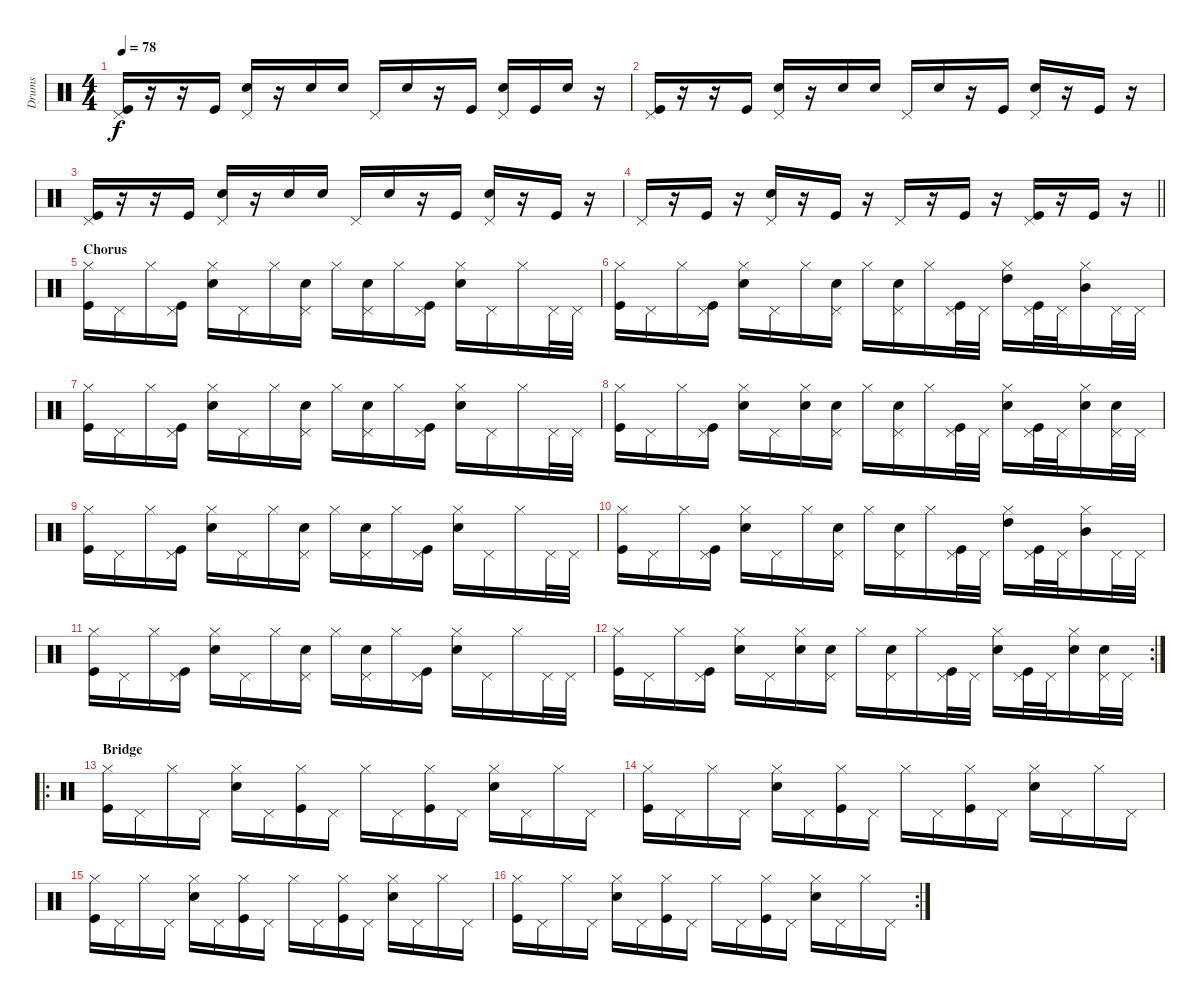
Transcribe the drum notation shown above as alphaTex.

\track ("Drums" "Drums") {instrument percussion}
\staff {score}
\articulation defaults
\ts (4 4)
\tempo 78
\clef neutral
\ks c
("Pedal Hi-Hat (hit)" "Kick (hit)").16{dy f} r.16 r.16 "Kick (hit)".16 ("Pedal Hi-Hat (hit)" "Snare (hit) 2").16 r.16 "Snare (hit) 2".16 "Snare (hit) 2".16 "Pedal Hi-Hat (hit)".16 "Snare (hit) 2".16 r.16 "Kick (hit)".16 ("Pedal Hi-Hat (hit)" "Snare (hit) 2").16 "Kick (hit)".16 "Snare (hit) 2".16 r.16 |
("Pedal Hi-Hat (hit)" "Kick (hit)").16 r.16 r.16 "Kick (hit)".16 ("Pedal Hi-Hat (hit)" "Snare (hit) 2").16 r.16 "Snare (hit) 2".16 "Snare (hit) 2".16 "Pedal Hi-Hat (hit)".16 "Snare (hit) 2".16 r.16 "Kick (hit)".16 ("Pedal Hi-Hat (hit)" "Snare (hit) 2").16 r.16 "Kick (hit)".16 r.16 |
("Pedal Hi-Hat (hit)" "Kick (hit)").16 r.16 r.16 "Kick (hit)".16 ("Pedal Hi-Hat (hit)" "Snare (hit) 2").16 r.16 "Snare (hit) 2".16 "Snare (hit) 2".16 "Pedal Hi-Hat (hit)".16 "Snare (hit) 2".16 r.16 "Kick (hit)".16 ("Pedal Hi-Hat (hit)" "Snare (hit) 2").16 r.16 "Kick (hit)".16 r.16 |
\barLineRight lightlight "Pedal Hi-Hat (hit)".16
r.16 "Kick (hit)".16 r.16 ("Pedal Hi-Hat (hit)" "Snare (hit) 2").16 r.16 "Kick (hit)".16 r.16 "Pedal Hi-Hat (hit)".16 r.16 "Kick (hit)".16 r.16 ("Pedal Hi-Hat (hit)" "Kick (hit)").16 r.16 "Kick (hit)".16 r.16 |
\section ("" "Chorus")
("Hi-Hat (closed)" "Kick (hit)").16 "Pedal Hi-Hat (hit)".16 "Hi-Hat (closed)".16 ("Pedal Hi-Hat (hit)" "Kick (hit)").16 ("Hi-Hat (closed)" "Snare (hit) 2").16 "Pedal Hi-Hat (hit)".16 "Hi-Hat (closed)".16 ("Pedal Hi-Hat (hit)" "Snare (hit) 2").16 "Hi-Hat (closed)".16 ("Pedal Hi-Hat (hit)" "Snare (hit) 2").16 "Hi-Hat (closed)".16 ("Pedal Hi-Hat (hit)" "Kick (hit)").16 ("Hi-Hat (closed)" "Snare (hit) 2").16 "Pedal Hi-Hat (hit)".16 "Hi-Hat (closed)".16 "Pedal Hi-Hat (hit)".32 "Pedal Hi-Hat (hit)".32 |
("Hi-Hat (closed)" "Kick (hit)").16 "Pedal Hi-Hat (hit)".16 "Hi-Hat (closed)".16 ("Pedal Hi-Hat (hit)" "Kick (hit)").16 ("Hi-Hat (closed)" "Snare (hit) 2").16 "Pedal Hi-Hat (hit)".16 "Hi-Hat (closed)".16 ("Pedal Hi-Hat (hit)" "Snare (hit) 2").16 "Hi-Hat (closed)".16 ("Pedal Hi-Hat (hit)" "Snare (hit) 2").16 "Hi-Hat (closed)".16 ("Pedal Hi-Hat (hit)" "Kick (hit)").32 "Pedal Hi-Hat (hit)".32 ("Hi-Hat (closed)" "High Tom (hit)").16 ("Pedal Hi-Hat (hit)" "Kick (hit)").32 "Pedal Hi-Hat (hit)".32 ("Hi-Hat (closed)" "Mid Tom (hit)").16 "Pedal Hi-Hat (hit)".32 "Pedal Hi-Hat (hit)".32 |
("Hi-Hat (closed)" "Kick (hit)").16 "Pedal Hi-Hat (hit)".16 "Hi-Hat (closed)".16 ("Pedal Hi-Hat (hit)" "Kick (hit)").16 ("Hi-Hat (closed)" "Snare (hit) 2").16 "Pedal Hi-Hat (hit)".16 "Hi-Hat (closed)".16 ("Pedal Hi-Hat (hit)" "Snare (hit) 2").16 "Hi-Hat (closed)".16 ("Pedal Hi-Hat (hit)" "Snare (hit) 2").16 "Hi-Hat (closed)".16 ("Pedal Hi-Hat (hit)" "Kick (hit)").16 ("Hi-Hat (closed)" "Snare (hit) 2").16 "Pedal Hi-Hat (hit)".16 "Hi-Hat (closed)".16 "Pedal Hi-Hat (hit)".32 "Pedal Hi-Hat (hit)".32 |
("Hi-Hat (closed)" "Kick (hit)").16 "Pedal Hi-Hat (hit)".16 "Hi-Hat (closed)".16 ("Pedal Hi-Hat (hit)" "Kick (hit)").16 ("Hi-Hat (closed)" "Snare (hit) 2").16 "Pedal Hi-Hat (hit)".16 ("Hi-Hat (closed)" "Snare (hit) 2").16 ("Pedal Hi-Hat (hit)" "Snare (hit) 2").16 "Hi-Hat (closed)".16 ("Pedal Hi-Hat (hit)" "Snare (hit) 2").16 "Hi-Hat (closed)".16 ("Pedal Hi-Hat (hit)" "Kick (hit)").32 "Pedal Hi-Hat (hit)".32 ("Hi-Hat (closed)" "Snare (hit) 2").16 ("Pedal Hi-Hat (hit)" "Kick (hit)").32 "Pedal Hi-Hat (hit)".32 ("Hi-Hat (closed)" "Snare (hit) 2").16 ("Pedal Hi-Hat (hit)" "Snare (hit) 2").32 "Pedal Hi-Hat (hit)".32 |
("Hi-Hat (closed)" "Kick (hit)").16 "Pedal Hi-Hat (hit)".16 "Hi-Hat (closed)".16 ("Pedal Hi-Hat (hit)" "Kick (hit)").16 ("Hi-Hat (closed)" "Snare (hit) 2").16 "Pedal Hi-Hat (hit)".16 "Hi-Hat (closed)".16 ("Pedal Hi-Hat (hit)" "Snare (hit) 2").16 "Hi-Hat (closed)".16 ("Pedal Hi-Hat (hit)" "Snare (hit) 2").16 "Hi-Hat (closed)".16 ("Pedal Hi-Hat (hit)" "Kick (hit)").16 ("Hi-Hat (closed)" "Snare (hit) 2").16 "Pedal Hi-Hat (hit)".16 "Hi-Hat (closed)".16 "Pedal Hi-Hat (hit)".32 "Pedal Hi-Hat (hit)".32 |
("Hi-Hat (closed)" "Kick (hit)").16 "Pedal Hi-Hat (hit)".16 "Hi-Hat (closed)".16 ("Pedal Hi-Hat (hit)" "Kick (hit)").16 ("Hi-Hat (closed)" "Snare (hit) 2").16 "Pedal Hi-Hat (hit)".16 "Hi-Hat (closed)".16 ("Pedal Hi-Hat (hit)" "Snare (hit) 2").16 "Hi-Hat (closed)".16 ("Pedal Hi-Hat (hit)" "Snare (hit) 2").16 "Hi-Hat (closed)".16 ("Pedal Hi-Hat (hit)" "Kick (hit)").32 "Pedal Hi-Hat (hit)".32 ("Hi-Hat (closed)" "High Tom (hit)").16 ("Pedal Hi-Hat (hit)" "Kick (hit)").32 "Pedal Hi-Hat (hit)".32 ("Hi-Hat (closed)" "Mid Tom (hit)").16 "Pedal Hi-Hat (hit)".32 "Pedal Hi-Hat (hit)".32 |
("Hi-Hat (closed)" "Kick (hit)").16 "Pedal Hi-Hat (hit)".16 "Hi-Hat (closed)".16 ("Pedal Hi-Hat (hit)" "Kick (hit)").16 ("Hi-Hat (closed)" "Snare (hit) 2").16 "Pedal Hi-Hat (hit)".16 "Hi-Hat (closed)".16 ("Pedal Hi-Hat (hit)" "Snare (hit) 2").16 "Hi-Hat (closed)".16 ("Pedal Hi-Hat (hit)" "Snare (hit) 2").16 "Hi-Hat (closed)".16 ("Pedal Hi-Hat (hit)" "Kick (hit)").16 ("Hi-Hat (closed)" "Snare (hit) 2").16 "Pedal Hi-Hat (hit)".16 "Hi-Hat (closed)".16 "Pedal Hi-Hat (hit)".32 "Pedal Hi-Hat (hit)".32 |
\rc 2
("Hi-Hat (closed)" "Kick (hit)").16 "Pedal Hi-Hat (hit)".16 "Hi-Hat (closed)".16 ("Pedal Hi-Hat (hit)" "Kick (hit)").16 ("Hi-Hat (closed)" "Snare (hit) 2").16 "Pedal Hi-Hat (hit)".16 ("Hi-Hat (closed)" "Snare (hit) 2").16 ("Pedal Hi-Hat (hit)" "Snare (hit) 2").16 "Hi-Hat (closed)".16 ("Pedal Hi-Hat (hit)" "Snare (hit) 2").16 "Hi-Hat (closed)".16 ("Pedal Hi-Hat (hit)" "Kick (hit)").32 "Pedal Hi-Hat (hit)".32 ("Hi-Hat (closed)" "Snare (hit) 2").16 ("Pedal Hi-Hat (hit)" "Kick (hit)").32 "Pedal Hi-Hat (hit)".32 ("Hi-Hat (closed)" "Snare (hit) 2").16 ("Pedal Hi-Hat (hit)" "Snare (hit) 2").32 "Pedal Hi-Hat (hit)".32 |
\ro
\section ("" "Bridge")
("Hi-Hat (closed)" "Kick (hit)").16 "Pedal Hi-Hat (hit)".16 "Hi-Hat (closed)".16 "Pedal Hi-Hat (hit)".16 ("Hi-Hat (closed)" "Snare (hit) 2").16 "Pedal Hi-Hat (hit)".16 ("Hi-Hat (closed)" "Kick (hit)").16 "Pedal Hi-Hat (hit)".16 "Hi-Hat (closed)".16 "Pedal Hi-Hat (hit)".16 ("Hi-Hat (closed)" "Kick (hit)").16 "Pedal Hi-Hat (hit)".16 ("Hi-Hat (closed)" "Snare (hit) 2").16 "Pedal Hi-Hat (hit)".16 "Hi-Hat (closed)".16 "Pedal Hi-Hat (hit)".16 |
("Hi-Hat (closed)" "Kick (hit)").16 "Pedal Hi-Hat (hit)".16 "Hi-Hat (closed)".16 "Pedal Hi-Hat (hit)".16 ("Hi-Hat (closed)" "Snare (hit) 2").16 "Pedal Hi-Hat (hit)".16 ("Hi-Hat (closed)" "Kick (hit)").16 "Pedal Hi-Hat (hit)".16 "Hi-Hat (closed)".16 "Pedal Hi-Hat (hit)".16 ("Hi-Hat (closed)" "Kick (hit)").16 "Pedal Hi-Hat (hit)".16 ("Hi-Hat (closed)" "Snare (hit) 2").16 "Pedal Hi-Hat (hit)".16 "Hi-Hat (closed)".16 "Pedal Hi-Hat (hit)".16 |
("Hi-Hat (closed)" "Kick (hit)").16 "Pedal Hi-Hat (hit)".16 "Hi-Hat (closed)".16 "Pedal Hi-Hat (hit)".16 ("Hi-Hat (closed)" "Snare (hit) 2").16 "Pedal Hi-Hat (hit)".16 ("Hi-Hat (closed)" "Kick (hit)").16 "Pedal Hi-Hat (hit)".16 "Hi-Hat (closed)".16 "Pedal Hi-Hat (hit)".16 ("Hi-Hat (closed)" "Kick (hit)").16 "Pedal Hi-Hat (hit)".16 ("Hi-Hat (closed)" "Snare (hit) 2").16 "Pedal Hi-Hat (hit)".16 "Hi-Hat (closed)".16 "Pedal Hi-Hat (hit)".16 |
\rc 2
("Hi-Hat (closed)" "Kick (hit)").16 "Pedal Hi-Hat (hit)".16 "Hi-Hat (closed)".16 "Pedal Hi-Hat (hit)".16 ("Hi-Hat (closed)" "Snare (hit) 2").16 "Pedal Hi-Hat (hit)".16 ("Hi-Hat (closed)" "Kick (hit)").16 "Pedal Hi-Hat (hit)".16 "Hi-Hat (closed)".16 "Pedal Hi-Hat (hit)".16 ("Hi-Hat (closed)" "Kick (hit)").16 "Pedal Hi-Hat (hit)".16 ("Hi-Hat (closed)" "Snare (hit) 2").16 "Pedal Hi-Hat (hit)".16 "Hi-Hat (closed)".16 "Pedal Hi-Hat (hit)".16
